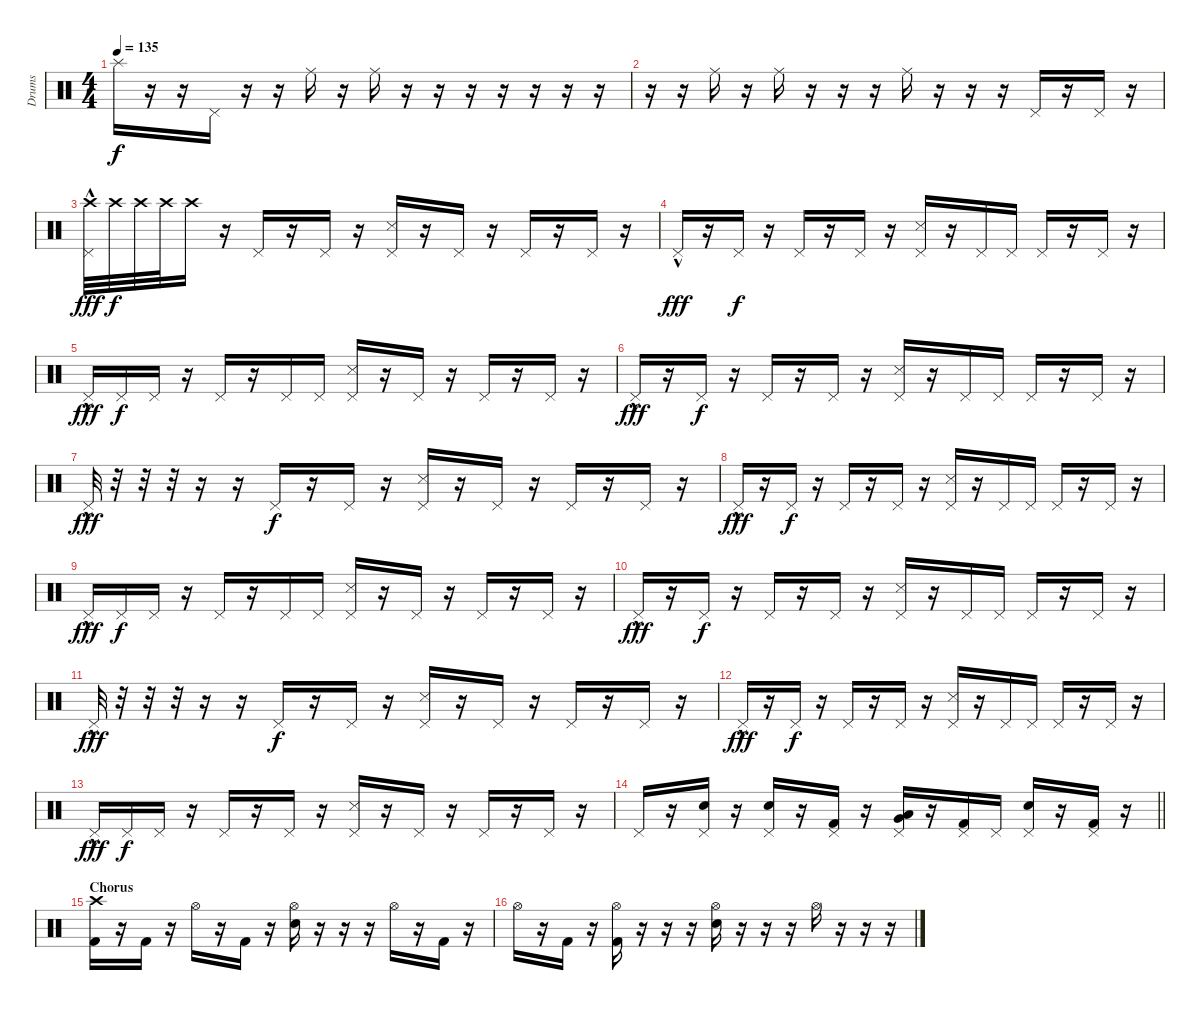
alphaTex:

\track ("Drums" "Drums") {instrument percussion}
\staff {score}
\articulation defaults
\ts (4 4)
\tempo 135
\clef neutral
\ks c "Splash (hit)".16{dy f}
r.16 r.16 "Pedal Hi-Hat (hit)".16 r.16 r.16 "Ride (middle)".16 r.16 "Ride (middle)".16 r.16 r.16 r.16 r.16 r.16 r.16 r.16 |
r.16 r.16 "Ride (middle)".16 r.16 "Ride (middle)".16 r.16 r.16 r.16 "Ride (middle)".16 r.16 r.16 r.16 "Pedal Hi-Hat (hit)".16 r.16 "Pedal Hi-Hat (hit)".16 r.16 |
("Crash high (hit)" "Pedal Hi-Hat (hit)"{hac}).32{dy fff} "Crash high (hit)".32{dy f} "Crash high (hit)".32 "Crash high (hit)".32 "Crash high (hit)".16 r.16 "Pedal Hi-Hat (hit)".16 r.16 "Pedal Hi-Hat (hit)".16 r.16 ("Pedal Hi-Hat (hit)" "Snare (side stick) 3").16 r.16 "Pedal Hi-Hat (hit)".16 r.16 "Pedal Hi-Hat (hit)".16 r.16 "Pedal Hi-Hat (hit)".16 r.16 |
"Pedal Hi-Hat (hit)"{hac}.16{dy fff} r.16 "Pedal Hi-Hat (hit)".16{dy f} r.16 "Pedal Hi-Hat (hit)".16 r.16 "Pedal Hi-Hat (hit)".16 r.16 ("Pedal Hi-Hat (hit)" "Snare (side stick) 3").16 r.16 "Pedal Hi-Hat (hit)".16 "Pedal Hi-Hat (hit)".16 "Pedal Hi-Hat (hit)".16 r.16 "Pedal Hi-Hat (hit)".16 r.16 |
"Pedal Hi-Hat (hit)"{hac}.16{dy fff} "Pedal Hi-Hat (hit)".16{dy f} "Pedal Hi-Hat (hit)".16 r.16 "Pedal Hi-Hat (hit)".16 r.16 "Pedal Hi-Hat (hit)".16 "Pedal Hi-Hat (hit)".16 ("Pedal Hi-Hat (hit)" "Snare (side stick) 3").16 r.16 "Pedal Hi-Hat (hit)".16 r.16 "Pedal Hi-Hat (hit)".16 r.16 "Pedal Hi-Hat (hit)".16 r.16 |
"Pedal Hi-Hat (hit)"{hac}.16{dy fff} r.16 "Pedal Hi-Hat (hit)".16{dy f} r.16 "Pedal Hi-Hat (hit)".16 r.16 "Pedal Hi-Hat (hit)".16 r.16 ("Pedal Hi-Hat (hit)" "Snare (side stick) 3").16 r.16 "Pedal Hi-Hat (hit)".16 "Pedal Hi-Hat (hit)".16 "Pedal Hi-Hat (hit)".16 r.16 "Pedal Hi-Hat (hit)".16 r.16 |
"Pedal Hi-Hat (hit)"{hac}.32{dy fff} r.32 r.32 r.32 r.16 r.16 "Pedal Hi-Hat (hit)".16{dy f} r.16 "Pedal Hi-Hat (hit)".16 r.16 ("Pedal Hi-Hat (hit)" "Snare (side stick) 3").16 r.16 "Pedal Hi-Hat (hit)".16 r.16 "Pedal Hi-Hat (hit)".16 r.16 "Pedal Hi-Hat (hit)".16 r.16 |
"Pedal Hi-Hat (hit)"{hac}.16{dy fff} r.16 "Pedal Hi-Hat (hit)".16{dy f} r.16 "Pedal Hi-Hat (hit)".16 r.16 "Pedal Hi-Hat (hit)".16 r.16 ("Pedal Hi-Hat (hit)" "Snare (side stick) 3").16 r.16 "Pedal Hi-Hat (hit)".16 "Pedal Hi-Hat (hit)".16 "Pedal Hi-Hat (hit)".16 r.16 "Pedal Hi-Hat (hit)".16 r.16 |
"Pedal Hi-Hat (hit)"{hac}.16{dy fff} "Pedal Hi-Hat (hit)".16{dy f} "Pedal Hi-Hat (hit)".16 r.16 "Pedal Hi-Hat (hit)".16 r.16 "Pedal Hi-Hat (hit)".16 "Pedal Hi-Hat (hit)".16 ("Pedal Hi-Hat (hit)" "Snare (side stick) 3").16 r.16 "Pedal Hi-Hat (hit)".16 r.16 "Pedal Hi-Hat (hit)".16 r.16 "Pedal Hi-Hat (hit)".16 r.16 |
"Pedal Hi-Hat (hit)"{hac}.16{dy fff} r.16 "Pedal Hi-Hat (hit)".16{dy f} r.16 "Pedal Hi-Hat (hit)".16 r.16 "Pedal Hi-Hat (hit)".16 r.16 ("Pedal Hi-Hat (hit)" "Snare (side stick) 3").16 r.16 "Pedal Hi-Hat (hit)".16 "Pedal Hi-Hat (hit)".16 "Pedal Hi-Hat (hit)".16 r.16 "Pedal Hi-Hat (hit)".16 r.16 |
"Pedal Hi-Hat (hit)"{hac}.32{dy fff} r.32 r.32 r.32 r.16 r.16 "Pedal Hi-Hat (hit)".16{dy f} r.16 "Pedal Hi-Hat (hit)".16 r.16 ("Pedal Hi-Hat (hit)" "Snare (side stick) 3").16 r.16 "Pedal Hi-Hat (hit)".16 r.16 "Pedal Hi-Hat (hit)".16 r.16 "Pedal Hi-Hat (hit)".16 r.16 |
"Pedal Hi-Hat (hit)"{hac}.16{dy fff} r.16 "Pedal Hi-Hat (hit)".16{dy f} r.16 "Pedal Hi-Hat (hit)".16 r.16 "Pedal Hi-Hat (hit)".16 r.16 ("Pedal Hi-Hat (hit)" "Snare (side stick) 3").16 r.16 "Pedal Hi-Hat (hit)".16 "Pedal Hi-Hat (hit)".16 "Pedal Hi-Hat (hit)".16 r.16 "Pedal Hi-Hat (hit)".16 r.16 |
"Pedal Hi-Hat (hit)"{hac}.16{dy fff} "Pedal Hi-Hat (hit)".16{dy f} "Pedal Hi-Hat (hit)".16 r.16 "Pedal Hi-Hat (hit)".16 r.16 "Pedal Hi-Hat (hit)".16 r.16 ("Pedal Hi-Hat (hit)" "Snare (side stick) 3").16 r.16 "Pedal Hi-Hat (hit)".16 r.16 "Pedal Hi-Hat (hit)".16 r.16 "Pedal Hi-Hat (hit)".16 r.16 |
\barLineRight lightlight "Pedal Hi-Hat (hit)".16
r.16 ("Pedal Hi-Hat (hit)" "Snare (hit) 2").16 r.16 ("Pedal Hi-Hat (hit)" "Snare (hit) 2").16 r.16 ("Pedal Hi-Hat (hit)" "Kick (hit) 2").16 r.16 ("Pedal Hi-Hat (hit)" "Low Tom (hit)" "Very Low Tom (hit)").16 r.16 ("Pedal Hi-Hat (hit)" "Kick (hit) 2").16 "Pedal Hi-Hat (hit)".16 ("Pedal Hi-Hat (hit)" "Snare (hit) 2").16 r.16 ("Pedal Hi-Hat (hit)" "Kick (hit) 2").16 r.16 |
\section ("" "Chorus")
("Crash high (hit)" "Kick (hit) 2").16 r.16 "Kick (hit) 2".16 r.16 "Hi-Hat (open)".16 r.16 "Kick (hit) 2".16 r.16 ("Hi-Hat (open)" "Snare (hit) 2").16 r.16 r.16 r.16 "Hi-Hat (open)".16 r.16 "Kick (hit) 2".16 r.16 |
"Hi-Hat (open)".16 r.16 "Kick (hit) 2".16 r.16 ("Hi-Hat (open)" "Kick (hit) 2").16 r.16 r.16 r.16 ("Hi-Hat (open)" "Snare (hit) 2").16 r.16 r.16 r.16 "Hi-Hat (open)".16 r.16 r.16 r.16
